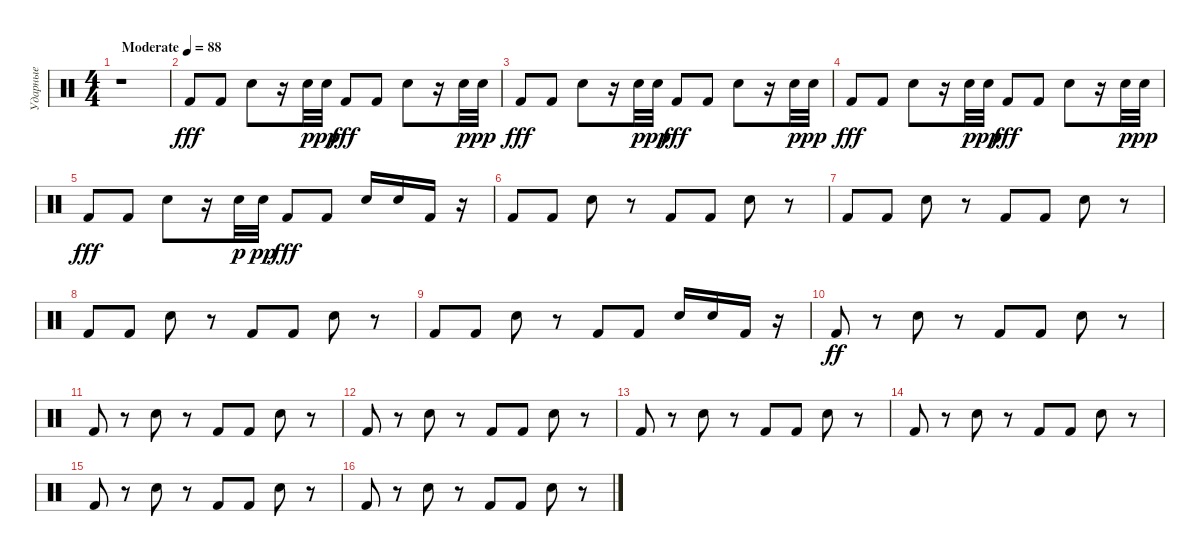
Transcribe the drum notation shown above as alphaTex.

\track ("Ударные" "Ударные") {instrument percussion}
\staff {score}
\articulation defaults
\ts (4 4)
\tempo (88 "Moderate")
\clef neutral
\ks c
r.1{dy fff} |
"Kick (hit) 2".8 "Kick (hit) 2".8 "Electric Snare (hit)".8 r.16 "Snare (hit) 2".32{dy p} "Snare (hit) 2".32{dy pp} "Kick (hit) 2".8{dy fff} "Kick (hit) 2".8 "Electric Snare (hit)".8 r.16 "Snare (hit) 2".32{dy p} "Snare (hit) 2".32{dy pp} |
"Kick (hit) 2".8{dy fff} "Kick (hit) 2".8 "Electric Snare (hit)".8 r.16 "Snare (hit) 2".32{dy p} "Snare (hit) 2".32{dy pp} "Kick (hit) 2".8{dy fff} "Kick (hit) 2".8 "Electric Snare (hit)".8 r.16 "Snare (hit) 2".32{dy p} "Snare (hit) 2".32{dy pp} |
"Kick (hit) 2".8{dy fff} "Kick (hit) 2".8 "Electric Snare (hit)".8 r.16 "Snare (hit) 2".32{dy p} "Snare (hit) 2".32{dy pp} "Kick (hit) 2".8{dy fff} "Kick (hit) 2".8 "Electric Snare (hit)".8 r.16 "Snare (hit) 2".32{dy p} "Snare (hit) 2".32{dy pp} |
"Kick (hit) 2".8{dy fff} "Kick (hit) 2".8 "Electric Snare (hit)".8 r.16 "Snare (hit) 2".32{dy p} "Snare (hit) 2".32{dy pp} "Kick (hit) 2".8{dy fff} "Kick (hit) 2".8 "Electric Snare (hit)".16 "Electric Snare (hit)".16 "Kick (hit) 2".16 r.16 |
"Kick (hit) 2".8 "Kick (hit) 2".8 "Electric Snare (hit)".8 r.8 "Kick (hit) 2".8 "Kick (hit) 2".8 "Electric Snare (hit)".8 r.8 |
"Kick (hit) 2".8 "Kick (hit) 2".8 "Electric Snare (hit)".8 r.8 "Kick (hit) 2".8 "Kick (hit) 2".8 "Electric Snare (hit)".8 r.8 |
"Kick (hit) 2".8 "Kick (hit) 2".8 "Electric Snare (hit)".8 r.8 "Kick (hit) 2".8 "Kick (hit) 2".8 "Electric Snare (hit)".8 r.8 |
"Kick (hit) 2".8 "Kick (hit) 2".8 "Electric Snare (hit)".8 r.8 "Kick (hit) 2".8 "Kick (hit) 2".8 "Electric Snare (hit)".16 "Electric Snare (hit)".16 "Kick (hit) 2".16 r.16 |
"Kick (hit) 2".8{dy ff} r.8 "Electric Snare (hit)".8 r.8 "Kick (hit) 2".8 "Kick (hit) 2".8 "Electric Snare (hit)".8 r.8 |
"Kick (hit) 2".8 r.8 "Electric Snare (hit)".8 r.8 "Kick (hit) 2".8 "Kick (hit) 2".8 "Electric Snare (hit)".8 r.8 |
"Kick (hit) 2".8 r.8 "Electric Snare (hit)".8 r.8 "Kick (hit) 2".8 "Kick (hit) 2".8 "Electric Snare (hit)".8 r.8 |
"Kick (hit) 2".8 r.8 "Electric Snare (hit)".8 r.8 "Kick (hit) 2".8 "Kick (hit) 2".8 "Electric Snare (hit)".8 r.8 |
"Kick (hit) 2".8 r.8 "Electric Snare (hit)".8 r.8 "Kick (hit) 2".8 "Kick (hit) 2".8 "Electric Snare (hit)".8 r.8 |
"Kick (hit) 2".8 r.8 "Electric Snare (hit)".8 r.8 "Kick (hit) 2".8 "Kick (hit) 2".8 "Electric Snare (hit)".8 r.8 |
"Kick (hit) 2".8 r.8 "Electric Snare (hit)".8 r.8 "Kick (hit) 2".8 "Kick (hit) 2".8 "Electric Snare (hit)".8 r.8
